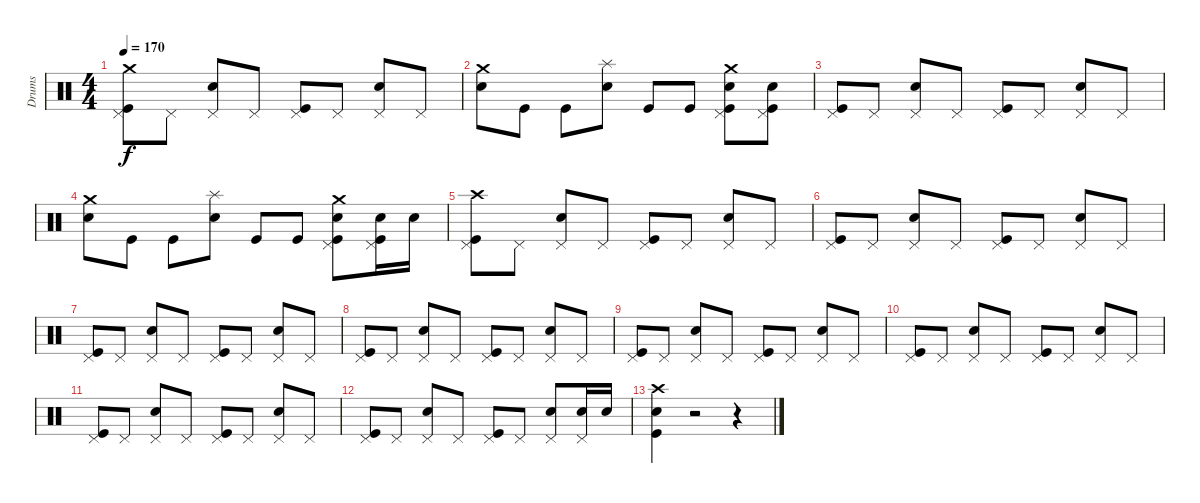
\track ("Drums" "Drums") {instrument percussion}
\staff {score}
\articulation defaults
\ts (4 4)
\tempo 170
\clef neutral
\ks c
("Crash medium (hit)" "Pedal Hi-Hat (hit)" "Kick (hit)").8{dy f} "Pedal Hi-Hat (hit)".8 ("Pedal Hi-Hat (hit)" "Electric Snare (hit)").8 "Pedal Hi-Hat (hit)".8 ("Pedal Hi-Hat (hit)" "Kick (hit)").8 "Pedal Hi-Hat (hit)".8 ("Pedal Hi-Hat (hit)" "Electric Snare (hit)").8 "Pedal Hi-Hat (hit)".8 |
("Crash medium (hit)" "Electric Snare (hit)").8 "Kick (hit)".8 "Kick (hit)".8 ("Splash (hit)" "Electric Snare (hit)").8 "Kick (hit)".8 "Kick (hit)".8 ("Crash medium (hit)" "Pedal Hi-Hat (hit)" "Kick (hit)" "Electric Snare (hit)").8 ("Pedal Hi-Hat (hit)" "Kick (hit)" "Electric Snare (hit)").8 |
("Pedal Hi-Hat (hit)" "Kick (hit)").8 "Pedal Hi-Hat (hit)".8 ("Pedal Hi-Hat (hit)" "Electric Snare (hit)").8 "Pedal Hi-Hat (hit)".8 ("Pedal Hi-Hat (hit)" "Kick (hit)").8 "Pedal Hi-Hat (hit)".8 ("Pedal Hi-Hat (hit)" "Electric Snare (hit)").8 "Pedal Hi-Hat (hit)".8 |
("Crash medium (hit)" "Electric Snare (hit)").8 "Kick (hit)".8 "Kick (hit)".8 ("Splash (hit)" "Electric Snare (hit)").8 "Kick (hit)".8 "Kick (hit)".8 ("Crash medium (hit)" "Pedal Hi-Hat (hit)" "Kick (hit)" "Electric Snare (hit)").8 ("Pedal Hi-Hat (hit)" "Kick (hit)" "Electric Snare (hit)").16 "Electric Snare (hit)".16 |
("Crash high (hit)" "Pedal Hi-Hat (hit)" "Kick (hit)").8 "Pedal Hi-Hat (hit)".8 ("Pedal Hi-Hat (hit)" "Electric Snare (hit)").8 "Pedal Hi-Hat (hit)".8 ("Pedal Hi-Hat (hit)" "Kick (hit)").8 "Pedal Hi-Hat (hit)".8 ("Pedal Hi-Hat (hit)" "Electric Snare (hit)").8 "Pedal Hi-Hat (hit)".8 |
("Pedal Hi-Hat (hit)" "Kick (hit)").8 "Pedal Hi-Hat (hit)".8 ("Pedal Hi-Hat (hit)" "Electric Snare (hit)").8 "Pedal Hi-Hat (hit)".8 ("Pedal Hi-Hat (hit)" "Kick (hit)").8 "Pedal Hi-Hat (hit)".8 ("Pedal Hi-Hat (hit)" "Electric Snare (hit)").8 "Pedal Hi-Hat (hit)".8 |
("Pedal Hi-Hat (hit)" "Kick (hit)").8 "Pedal Hi-Hat (hit)".8 ("Pedal Hi-Hat (hit)" "Electric Snare (hit)").8 "Pedal Hi-Hat (hit)".8 ("Pedal Hi-Hat (hit)" "Kick (hit)").8 "Pedal Hi-Hat (hit)".8 ("Pedal Hi-Hat (hit)" "Electric Snare (hit)").8 "Pedal Hi-Hat (hit)".8 |
("Pedal Hi-Hat (hit)" "Kick (hit)").8 "Pedal Hi-Hat (hit)".8 ("Pedal Hi-Hat (hit)" "Electric Snare (hit)").8 "Pedal Hi-Hat (hit)".8 ("Pedal Hi-Hat (hit)" "Kick (hit)").8 "Pedal Hi-Hat (hit)".8 ("Pedal Hi-Hat (hit)" "Electric Snare (hit)").8 "Pedal Hi-Hat (hit)".8 |
("Pedal Hi-Hat (hit)" "Kick (hit)").8 "Pedal Hi-Hat (hit)".8 ("Pedal Hi-Hat (hit)" "Electric Snare (hit)").8 "Pedal Hi-Hat (hit)".8 ("Pedal Hi-Hat (hit)" "Kick (hit)").8 "Pedal Hi-Hat (hit)".8 ("Pedal Hi-Hat (hit)" "Electric Snare (hit)").8 "Pedal Hi-Hat (hit)".8 |
("Pedal Hi-Hat (hit)" "Kick (hit)").8 "Pedal Hi-Hat (hit)".8 ("Pedal Hi-Hat (hit)" "Electric Snare (hit)").8 "Pedal Hi-Hat (hit)".8 ("Pedal Hi-Hat (hit)" "Kick (hit)").8 "Pedal Hi-Hat (hit)".8 ("Pedal Hi-Hat (hit)" "Electric Snare (hit)").8 "Pedal Hi-Hat (hit)".8 |
("Pedal Hi-Hat (hit)" "Kick (hit)").8 "Pedal Hi-Hat (hit)".8 ("Pedal Hi-Hat (hit)" "Electric Snare (hit)").8 "Pedal Hi-Hat (hit)".8 ("Pedal Hi-Hat (hit)" "Kick (hit)").8 "Pedal Hi-Hat (hit)".8 ("Pedal Hi-Hat (hit)" "Electric Snare (hit)").8 "Pedal Hi-Hat (hit)".8 |
("Pedal Hi-Hat (hit)" "Kick (hit)").8 "Pedal Hi-Hat (hit)".8 ("Pedal Hi-Hat (hit)" "Electric Snare (hit)").8 "Pedal Hi-Hat (hit)".8 ("Pedal Hi-Hat (hit)" "Kick (hit)").8 "Pedal Hi-Hat (hit)".8 ("Pedal Hi-Hat (hit)" "Electric Snare (hit)").8 ("Electric Snare (hit)" "Pedal Hi-Hat (hit)").16 "Electric Snare (hit)".16 |
("Electric Snare (hit)" "Kick (hit)" "Crash high (hit)").4 r.2 r.4
